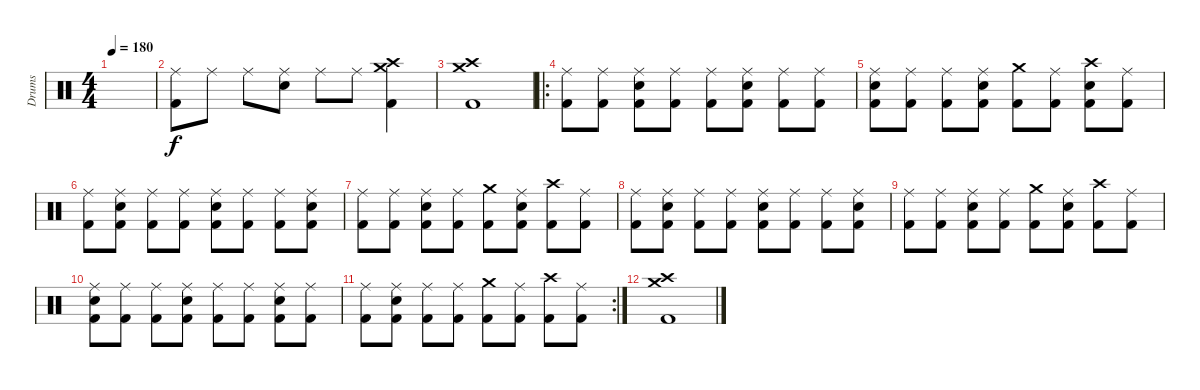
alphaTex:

\track ("Drums" "Drums") {instrument percussion}
\staff {score}
\articulation defaults
\ts (4 4)
\tempo 180
\clef neutral
\ks c
|
("Ride (middle)" "Kick (hit) 2").8 "Ride (middle)".8 "Ride (middle)".8 ("Ride (middle)" "Electric Snare (hit)").8 "Ride (middle)".8 "Ride (middle)".8 ("Crash high (hit)" "Crash medium (hit)" "Kick (hit) 2").4 |
("Crash high (hit)" "Crash medium (hit)" "Kick (hit) 2").1 |
\ro
("Ride (middle)" "Kick (hit) 2").8 ("Ride (middle)" "Kick (hit) 2").8 ("Ride (middle)" "Electric Snare (hit)" "Kick (hit) 2").8 ("Ride (middle)" "Kick (hit) 2").8 ("Ride (middle)" "Kick (hit) 2").8 ("Ride (middle)" "Electric Snare (hit)" "Kick (hit) 2").8 ("Ride (middle)" "Kick (hit) 2").8 ("Ride (middle)" "Kick (hit) 2").8 |
("Ride (middle)" "Electric Snare (hit)" "Kick (hit) 2").8 ("Ride (middle)" "Kick (hit) 2").8 ("Ride (middle)" "Kick (hit) 2").8 ("Ride (middle)" "Electric Snare (hit)" "Kick (hit) 2").8 ("Crash medium (hit)" "Kick (hit) 2").8 ("Ride (middle)" "Kick (hit) 2").8 ("Crash high (hit)" "Electric Snare (hit)" "Kick (hit) 2").8 ("Ride (middle)" "Kick (hit) 2").8 |
("Ride (middle)" "Kick (hit) 2").8 ("Ride (middle)" "Electric Snare (hit)" "Kick (hit) 2").8 ("Ride (middle)" "Kick (hit) 2").8 ("Ride (middle)" "Kick (hit) 2").8 ("Ride (middle)" "Electric Snare (hit)" "Kick (hit) 2").8 ("Ride (middle)" "Kick (hit) 2").8 ("Ride (middle)" "Kick (hit) 2").8 ("Ride (middle)" "Electric Snare (hit)" "Kick (hit) 2").8 |
("Ride (middle)" "Kick (hit) 2").8 ("Ride (middle)" "Kick (hit) 2").8 ("Ride (middle)" "Electric Snare (hit)" "Kick (hit) 2").8 ("Ride (middle)" "Kick (hit) 2").8 ("Crash medium (hit)" "Kick (hit) 2").8 ("Ride (middle)" "Electric Snare (hit)" "Kick (hit) 2").8 ("Crash high (hit)" "Kick (hit) 2").8 ("Ride (middle)" "Kick (hit) 2").8 |
("Ride (middle)" "Kick (hit) 2").8 ("Ride (middle)" "Electric Snare (hit)" "Kick (hit) 2").8 ("Ride (middle)" "Kick (hit) 2").8 ("Ride (middle)" "Kick (hit) 2").8 ("Ride (middle)" "Electric Snare (hit)" "Kick (hit) 2").8 ("Ride (middle)" "Kick (hit) 2").8 ("Ride (middle)" "Kick (hit) 2").8 ("Ride (middle)" "Electric Snare (hit)" "Kick (hit) 2").8 |
("Ride (middle)" "Kick (hit) 2").8 ("Ride (middle)" "Kick (hit) 2").8 ("Ride (middle)" "Electric Snare (hit)" "Kick (hit) 2").8 ("Ride (middle)" "Kick (hit) 2").8 ("Crash medium (hit)" "Kick (hit) 2").8 ("Ride (middle)" "Electric Snare (hit)" "Kick (hit) 2").8 ("Crash high (hit)" "Kick (hit) 2").8 ("Ride (middle)" "Kick (hit) 2").8 |
("Ride (middle)" "Electric Snare (hit)" "Kick (hit) 2").8 ("Ride (middle)" "Kick (hit) 2").8 ("Ride (middle)" "Kick (hit) 2").8 ("Ride (middle)" "Electric Snare (hit)" "Kick (hit) 2").8 ("Ride (middle)" "Kick (hit) 2").8 ("Ride (middle)" "Kick (hit) 2").8 ("Ride (middle)" "Electric Snare (hit)" "Kick (hit) 2").8 ("Ride (middle)" "Kick (hit) 2").8 |
\rc 2
("Ride (middle)" "Kick (hit) 2").8 ("Ride (middle)" "Electric Snare (hit)" "Kick (hit) 2").8 ("Ride (middle)" "Kick (hit) 2").8 ("Ride (middle)" "Kick (hit) 2").8 ("Crash medium (hit)" "Kick (hit) 2").8 ("Ride (middle)" "Kick (hit) 2").8 ("Crash high (hit)" "Kick (hit) 2").8 ("Ride (middle)" "Kick (hit) 2").8 |
("Crash high (hit)" "Crash medium (hit)" "Kick (hit) 2").1
